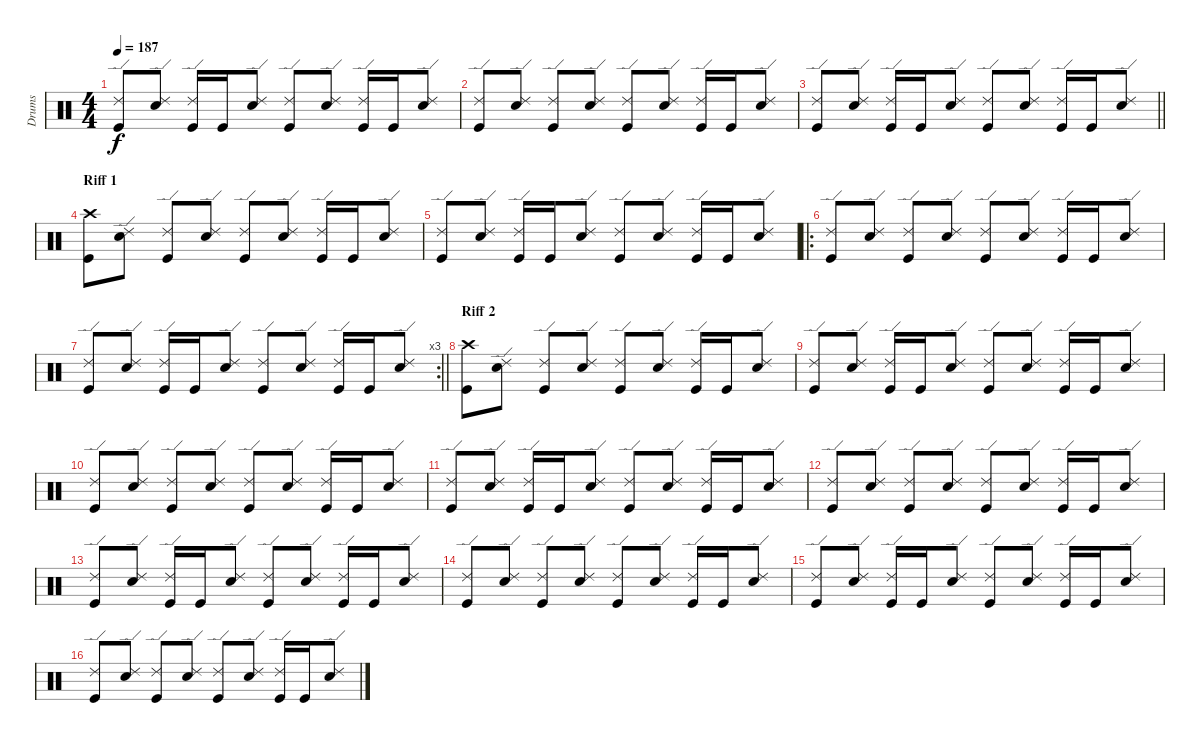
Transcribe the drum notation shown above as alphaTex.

\track ("Drums" "Drums") {instrument percussion}
\staff {score}
\articulation defaults
\ts (4 4)
\tempo 187
\clef neutral
\ks c
("Ride (edge) 2" "Kick (hit)").8{dy f} ("Ride (edge) 2" "Snare (hit) 2").8 ("Ride (edge) 2" "Kick (hit)").16 "Kick (hit)".16 ("Ride (edge) 2" "Snare (hit) 2").8 ("Ride (edge) 2" "Kick (hit)").8 ("Ride (edge) 2" "Snare (hit) 2").8 ("Ride (edge) 2" "Kick (hit)").16 "Kick (hit)".16 ("Ride (edge) 2" "Snare (hit) 2").8 |
("Ride (edge) 2" "Kick (hit)").8 ("Ride (edge) 2" "Snare (hit) 2").8 ("Ride (edge) 2" "Kick (hit)").8 ("Ride (edge) 2" "Snare (hit) 2").8 ("Ride (edge) 2" "Kick (hit)").8 ("Ride (edge) 2" "Snare (hit) 2").8 ("Ride (edge) 2" "Kick (hit)").16 "Kick (hit)".16 ("Ride (edge) 2" "Snare (hit) 2").8 |
\barLineRight lightlight
("Ride (edge) 2" "Kick (hit)").8 ("Ride (edge) 2" "Snare (hit) 2").8 ("Ride (edge) 2" "Kick (hit)").16 "Kick (hit)".16 ("Ride (edge) 2" "Snare (hit) 2").8 ("Ride (edge) 2" "Kick (hit)").8 ("Ride (edge) 2" "Snare (hit) 2").8 ("Ride (edge) 2" "Kick (hit)").16 "Kick (hit)".16 ("Ride (edge) 2" "Snare (hit) 2").8 |
\section ("" "Riff 1")
("Crash high (hit)" "Kick (hit)").8 ("Ride (edge) 2" "Snare (hit) 2").8 ("Ride (edge) 2" "Kick (hit)").8 ("Ride (edge) 2" "Snare (hit) 2").8 ("Ride (edge) 2" "Kick (hit)").8 ("Ride (edge) 2" "Snare (hit) 2").8 ("Ride (edge) 2" "Kick (hit)").16 "Kick (hit)".16 ("Ride (edge) 2" "Snare (hit) 2").8 |
("Ride (edge) 2" "Kick (hit)").8 ("Ride (edge) 2" "Snare (hit) 2").8 ("Ride (edge) 2" "Kick (hit)").16 "Kick (hit)".16 ("Ride (edge) 2" "Snare (hit) 2").8 ("Ride (edge) 2" "Kick (hit)").8 ("Ride (edge) 2" "Snare (hit) 2").8 ("Ride (edge) 2" "Kick (hit)").16 "Kick (hit)".16 ("Ride (edge) 2" "Snare (hit) 2").8 |
\ro
("Ride (edge) 2" "Kick (hit)").8 ("Ride (edge) 2" "Snare (hit) 2").8 ("Ride (edge) 2" "Kick (hit)").8 ("Ride (edge) 2" "Snare (hit) 2").8 ("Ride (edge) 2" "Kick (hit)").8 ("Ride (edge) 2" "Snare (hit) 2").8 ("Ride (edge) 2" "Kick (hit)").16 "Kick (hit)".16 ("Ride (edge) 2" "Snare (hit) 2").8 |
\rc 3
\barLineRight lightlight
("Ride (edge) 2" "Kick (hit)").8 ("Ride (edge) 2" "Snare (hit) 2").8 ("Ride (edge) 2" "Kick (hit)").16 "Kick (hit)".16 ("Ride (edge) 2" "Snare (hit) 2").8 ("Ride (edge) 2" "Kick (hit)").8 ("Ride (edge) 2" "Snare (hit) 2").8 ("Ride (edge) 2" "Kick (hit)").16 "Kick (hit)".16 ("Ride (edge) 2" "Snare (hit) 2").8 |
\section ("" "Riff 2")
("Crash high (hit)" "Kick (hit)").8 ("Ride (edge) 2" "Snare (hit) 2").8 ("Ride (edge) 2" "Kick (hit)").8 ("Ride (edge) 2" "Snare (hit) 2").8 ("Ride (edge) 2" "Kick (hit)").8 ("Ride (edge) 2" "Snare (hit) 2").8 ("Ride (edge) 2" "Kick (hit)").16 "Kick (hit)".16 ("Ride (edge) 2" "Snare (hit) 2").8 |
("Ride (edge) 2" "Kick (hit)").8 ("Ride (edge) 2" "Snare (hit) 2").8 ("Ride (edge) 2" "Kick (hit)").16 "Kick (hit)".16 ("Ride (edge) 2" "Snare (hit) 2").8 ("Ride (edge) 2" "Kick (hit)").8 ("Ride (edge) 2" "Snare (hit) 2").8 ("Ride (edge) 2" "Kick (hit)").16 "Kick (hit)".16 ("Ride (edge) 2" "Snare (hit) 2").8 |
("Ride (edge) 2" "Kick (hit)").8 ("Ride (edge) 2" "Snare (hit) 2").8 ("Ride (edge) 2" "Kick (hit)").8 ("Ride (edge) 2" "Snare (hit) 2").8 ("Ride (edge) 2" "Kick (hit)").8 ("Ride (edge) 2" "Snare (hit) 2").8 ("Ride (edge) 2" "Kick (hit)").16 "Kick (hit)".16 ("Ride (edge) 2" "Snare (hit) 2").8 |
("Ride (edge) 2" "Kick (hit)").8 ("Ride (edge) 2" "Snare (hit) 2").8 ("Ride (edge) 2" "Kick (hit)").16 "Kick (hit)".16 ("Ride (edge) 2" "Snare (hit) 2").8 ("Ride (edge) 2" "Kick (hit)").8 ("Ride (edge) 2" "Snare (hit) 2").8 ("Ride (edge) 2" "Kick (hit)").16 "Kick (hit)".16 ("Ride (edge) 2" "Snare (hit) 2").8 |
("Ride (edge) 2" "Kick (hit)").8 ("Ride (edge) 2" "Snare (hit) 2").8 ("Ride (edge) 2" "Kick (hit)").8 ("Ride (edge) 2" "Snare (hit) 2").8 ("Ride (edge) 2" "Kick (hit)").8 ("Ride (edge) 2" "Snare (hit) 2").8 ("Ride (edge) 2" "Kick (hit)").16 "Kick (hit)".16 ("Ride (edge) 2" "Snare (hit) 2").8 |
("Ride (edge) 2" "Kick (hit)").8 ("Ride (edge) 2" "Snare (hit) 2").8 ("Ride (edge) 2" "Kick (hit)").16 "Kick (hit)".16 ("Ride (edge) 2" "Snare (hit) 2").8 ("Ride (edge) 2" "Kick (hit)").8 ("Ride (edge) 2" "Snare (hit) 2").8 ("Ride (edge) 2" "Kick (hit)").16 "Kick (hit)".16 ("Ride (edge) 2" "Snare (hit) 2").8 |
("Ride (edge) 2" "Kick (hit)").8 ("Ride (edge) 2" "Snare (hit) 2").8 ("Ride (edge) 2" "Kick (hit)").8 ("Ride (edge) 2" "Snare (hit) 2").8 ("Ride (edge) 2" "Kick (hit)").8 ("Ride (edge) 2" "Snare (hit) 2").8 ("Ride (edge) 2" "Kick (hit)").16 "Kick (hit)".16 ("Ride (edge) 2" "Snare (hit) 2").8 |
("Ride (edge) 2" "Kick (hit)").8 ("Ride (edge) 2" "Snare (hit) 2").8 ("Ride (edge) 2" "Kick (hit)").16 "Kick (hit)".16 ("Ride (edge) 2" "Snare (hit) 2").8 ("Ride (edge) 2" "Kick (hit)").8 ("Ride (edge) 2" "Snare (hit) 2").8 ("Ride (edge) 2" "Kick (hit)").16 "Kick (hit)".16 ("Ride (edge) 2" "Snare (hit) 2").8 |
("Ride (edge) 2" "Kick (hit)").8 ("Ride (edge) 2" "Snare (hit) 2").8 ("Ride (edge) 2" "Kick (hit)").8 ("Ride (edge) 2" "Snare (hit) 2").8 ("Ride (edge) 2" "Kick (hit)").8 ("Ride (edge) 2" "Snare (hit) 2").8 ("Ride (edge) 2" "Kick (hit)").16 "Kick (hit)".16 ("Ride (edge) 2" "Snare (hit) 2").8
